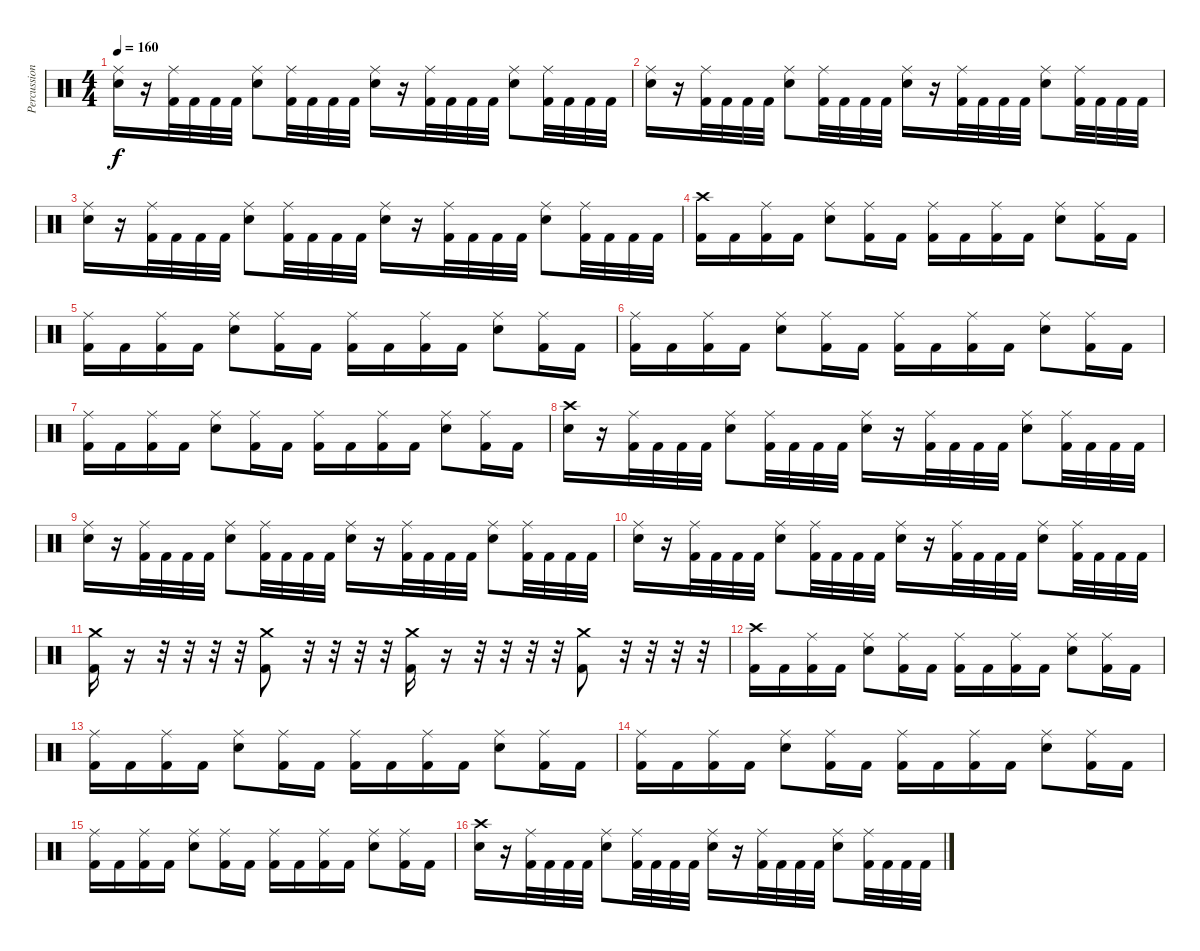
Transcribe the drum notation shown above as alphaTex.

\track ("Percussion" "Percussion") {instrument percussion}
\staff {score}
\articulation defaults
\ts (4 4)
\tempo 160
\clef neutral
\ks c
("Snare (hit) 2" "Ride (middle)").16{dy f} r.16 ("Kick (hit) 2" "Ride (middle)").32 "Kick (hit) 2".32 "Kick (hit) 2".32 "Kick (hit) 2".32 ("Snare (hit) 2" "Ride (middle)").8 ("Kick (hit) 2" "Ride (middle)").32 "Kick (hit) 2".32 "Kick (hit) 2".32 "Kick (hit) 2".32 ("Snare (hit) 2" "Ride (middle)").16 r.16 ("Kick (hit) 2" "Ride (middle)").32 "Kick (hit) 2".32 "Kick (hit) 2".32 "Kick (hit) 2".32 ("Snare (hit) 2" "Ride (middle)").8 ("Kick (hit) 2" "Ride (middle)").32 "Kick (hit) 2".32 "Kick (hit) 2".32 "Kick (hit) 2".32 |
("Snare (hit) 2" "Ride (middle)").16 r.16 ("Kick (hit) 2" "Ride (middle)").32 "Kick (hit) 2".32 "Kick (hit) 2".32 "Kick (hit) 2".32 ("Snare (hit) 2" "Ride (middle)").8 ("Kick (hit) 2" "Ride (middle)").32 "Kick (hit) 2".32 "Kick (hit) 2".32 "Kick (hit) 2".32 ("Snare (hit) 2" "Ride (middle)").16 r.16 ("Kick (hit) 2" "Ride (middle)").32 "Kick (hit) 2".32 "Kick (hit) 2".32 "Kick (hit) 2".32 ("Snare (hit) 2" "Ride (middle)").8 ("Kick (hit) 2" "Ride (middle)").32 "Kick (hit) 2".32 "Kick (hit) 2".32 "Kick (hit) 2".32 |
("Snare (hit) 2" "Ride (middle)").16 r.16 ("Kick (hit) 2" "Ride (middle)").32 "Kick (hit) 2".32 "Kick (hit) 2".32 "Kick (hit) 2".32 ("Snare (hit) 2" "Ride (middle)").8 ("Kick (hit) 2" "Ride (middle)").32 "Kick (hit) 2".32 "Kick (hit) 2".32 "Kick (hit) 2".32 ("Snare (hit) 2" "Ride (middle)").16 r.16 ("Kick (hit) 2" "Ride (middle)").32 "Kick (hit) 2".32 "Kick (hit) 2".32 "Kick (hit) 2".32 ("Snare (hit) 2" "Ride (middle)").8 ("Kick (hit) 2" "Ride (middle)").32 "Kick (hit) 2".32 "Kick (hit) 2".32 "Kick (hit) 2".32 |
("Kick (hit) 2" "Crash high (hit)").16 "Kick (hit) 2".16 ("Kick (hit) 2" "Ride (middle)").16 "Kick (hit) 2".16 ("Snare (hit) 2" "Ride (middle)").8 ("Kick (hit) 2" "Ride (middle)").16 "Kick (hit) 2".16 ("Kick (hit) 2" "Ride (middle)").16 "Kick (hit) 2".16 ("Kick (hit) 2" "Ride (middle)").16 "Kick (hit) 2".16 ("Snare (hit) 2" "Ride (middle)").8 ("Kick (hit) 2" "Ride (middle)").16 "Kick (hit) 2".16 |
("Kick (hit) 2" "Ride (middle)").16 "Kick (hit) 2".16 ("Kick (hit) 2" "Ride (middle)").16 "Kick (hit) 2".16 ("Snare (hit) 2" "Ride (middle)").8 ("Kick (hit) 2" "Ride (middle)").16 "Kick (hit) 2".16 ("Kick (hit) 2" "Ride (middle)").16 "Kick (hit) 2".16 ("Kick (hit) 2" "Ride (middle)").16 "Kick (hit) 2".16 ("Snare (hit) 2" "Ride (middle)").8 ("Kick (hit) 2" "Ride (middle)").16 "Kick (hit) 2".16 |
("Kick (hit) 2" "Ride (middle)").16 "Kick (hit) 2".16 ("Kick (hit) 2" "Ride (middle)").16 "Kick (hit) 2".16 ("Snare (hit) 2" "Ride (middle)").8 ("Kick (hit) 2" "Ride (middle)").16 "Kick (hit) 2".16 ("Kick (hit) 2" "Ride (middle)").16 "Kick (hit) 2".16 ("Kick (hit) 2" "Ride (middle)").16 "Kick (hit) 2".16 ("Snare (hit) 2" "Ride (middle)").8 ("Kick (hit) 2" "Ride (middle)").16 "Kick (hit) 2".16 |
("Kick (hit) 2" "Ride (middle)").16 "Kick (hit) 2".16 ("Kick (hit) 2" "Ride (middle)").16 "Kick (hit) 2".16 ("Snare (hit) 2" "Ride (middle)").8 ("Kick (hit) 2" "Ride (middle)").16 "Kick (hit) 2".16 ("Kick (hit) 2" "Ride (middle)").16 "Kick (hit) 2".16 ("Kick (hit) 2" "Ride (middle)").16 "Kick (hit) 2".16 ("Snare (hit) 2" "Ride (middle)").8 ("Kick (hit) 2" "Ride (middle)").16 "Kick (hit) 2".16 |
("Snare (hit) 2" "Crash high (hit)").16 r.16 ("Kick (hit) 2" "Ride (middle)").32 "Kick (hit) 2".32 "Kick (hit) 2".32 "Kick (hit) 2".32 ("Snare (hit) 2" "Ride (middle)").8 ("Kick (hit) 2" "Ride (middle)").32 "Kick (hit) 2".32 "Kick (hit) 2".32 "Kick (hit) 2".32 ("Snare (hit) 2" "Ride (middle)").16 r.16 ("Kick (hit) 2" "Ride (middle)").32 "Kick (hit) 2".32 "Kick (hit) 2".32 "Kick (hit) 2".32 ("Snare (hit) 2" "Ride (middle)").8 ("Kick (hit) 2" "Ride (middle)").32 "Kick (hit) 2".32 "Kick (hit) 2".32 "Kick (hit) 2".32 |
("Snare (hit) 2" "Ride (middle)").16 r.16 ("Kick (hit) 2" "Ride (middle)").32 "Kick (hit) 2".32 "Kick (hit) 2".32 "Kick (hit) 2".32 ("Snare (hit) 2" "Ride (middle)").8 ("Kick (hit) 2" "Ride (middle)").32 "Kick (hit) 2".32 "Kick (hit) 2".32 "Kick (hit) 2".32 ("Snare (hit) 2" "Ride (middle)").16 r.16 ("Kick (hit) 2" "Ride (middle)").32 "Kick (hit) 2".32 "Kick (hit) 2".32 "Kick (hit) 2".32 ("Snare (hit) 2" "Ride (middle)").8 ("Kick (hit) 2" "Ride (middle)").32 "Kick (hit) 2".32 "Kick (hit) 2".32 "Kick (hit) 2".32 |
("Snare (hit) 2" "Ride (middle)").16 r.16 ("Kick (hit) 2" "Ride (middle)").32 "Kick (hit) 2".32 "Kick (hit) 2".32 "Kick (hit) 2".32 ("Snare (hit) 2" "Ride (middle)").8 ("Kick (hit) 2" "Ride (middle)").32 "Kick (hit) 2".32 "Kick (hit) 2".32 "Kick (hit) 2".32 ("Snare (hit) 2" "Ride (middle)").16 r.16 ("Kick (hit) 2" "Ride (middle)").32 "Kick (hit) 2".32 "Kick (hit) 2".32 "Kick (hit) 2".32 ("Snare (hit) 2" "Ride (middle)").8 ("Kick (hit) 2" "Ride (middle)").32 "Kick (hit) 2".32 "Kick (hit) 2".32 "Kick (hit) 2".32 |
("Kick (hit) 2" "Crash medium (hit)").16 r.16 r.32 r.32 r.32 r.32 ("Kick (hit) 2" "Crash medium (hit)").8 r.32 r.32 r.32 r.32 ("Kick (hit) 2" "Crash medium (hit)").16 r.16 r.32 r.32 r.32 r.32 ("Kick (hit) 2" "Crash medium (hit)").8 r.32 r.32 r.32 r.32 |
("Kick (hit) 2" "Crash high (hit)").16 "Kick (hit) 2".16 ("Kick (hit) 2" "Ride (middle)").16 "Kick (hit) 2".16 ("Snare (hit) 2" "Ride (middle)").8 ("Kick (hit) 2" "Ride (middle)").16 "Kick (hit) 2".16 ("Kick (hit) 2" "Ride (middle)").16 "Kick (hit) 2".16 ("Kick (hit) 2" "Ride (middle)").16 "Kick (hit) 2".16 ("Snare (hit) 2" "Ride (middle)").8 ("Kick (hit) 2" "Ride (middle)").16 "Kick (hit) 2".16 |
("Kick (hit) 2" "Ride (middle)").16 "Kick (hit) 2".16 ("Kick (hit) 2" "Ride (middle)").16 "Kick (hit) 2".16 ("Snare (hit) 2" "Ride (middle)").8 ("Kick (hit) 2" "Ride (middle)").16 "Kick (hit) 2".16 ("Kick (hit) 2" "Ride (middle)").16 "Kick (hit) 2".16 ("Kick (hit) 2" "Ride (middle)").16 "Kick (hit) 2".16 ("Snare (hit) 2" "Ride (middle)").8 ("Kick (hit) 2" "Ride (middle)").16 "Kick (hit) 2".16 |
("Kick (hit) 2" "Ride (middle)").16 "Kick (hit) 2".16 ("Kick (hit) 2" "Ride (middle)").16 "Kick (hit) 2".16 ("Snare (hit) 2" "Ride (middle)").8 ("Kick (hit) 2" "Ride (middle)").16 "Kick (hit) 2".16 ("Kick (hit) 2" "Ride (middle)").16 "Kick (hit) 2".16 ("Kick (hit) 2" "Ride (middle)").16 "Kick (hit) 2".16 ("Snare (hit) 2" "Ride (middle)").8 ("Kick (hit) 2" "Ride (middle)").16 "Kick (hit) 2".16 |
("Kick (hit) 2" "Ride (middle)").16 "Kick (hit) 2".16 ("Kick (hit) 2" "Ride (middle)").16 "Kick (hit) 2".16 ("Snare (hit) 2" "Ride (middle)").8 ("Kick (hit) 2" "Ride (middle)").16 "Kick (hit) 2".16 ("Kick (hit) 2" "Ride (middle)").16 "Kick (hit) 2".16 ("Kick (hit) 2" "Ride (middle)").16 "Kick (hit) 2".16 ("Snare (hit) 2" "Ride (middle)").8 ("Kick (hit) 2" "Ride (middle)").16 "Kick (hit) 2".16 |
("Snare (hit) 2" "Crash high (hit)").16 r.16 ("Kick (hit) 2" "Ride (middle)").32 "Kick (hit) 2".32 "Kick (hit) 2".32 "Kick (hit) 2".32 ("Snare (hit) 2" "Ride (middle)").8 ("Kick (hit) 2" "Ride (middle)").32 "Kick (hit) 2".32 "Kick (hit) 2".32 "Kick (hit) 2".32 ("Snare (hit) 2" "Ride (middle)").16 r.16 ("Kick (hit) 2" "Ride (middle)").32 "Kick (hit) 2".32 "Kick (hit) 2".32 "Kick (hit) 2".32 ("Snare (hit) 2" "Ride (middle)").8 ("Kick (hit) 2" "Ride (middle)").32 "Kick (hit) 2".32 "Kick (hit) 2".32 "Kick (hit) 2".32
